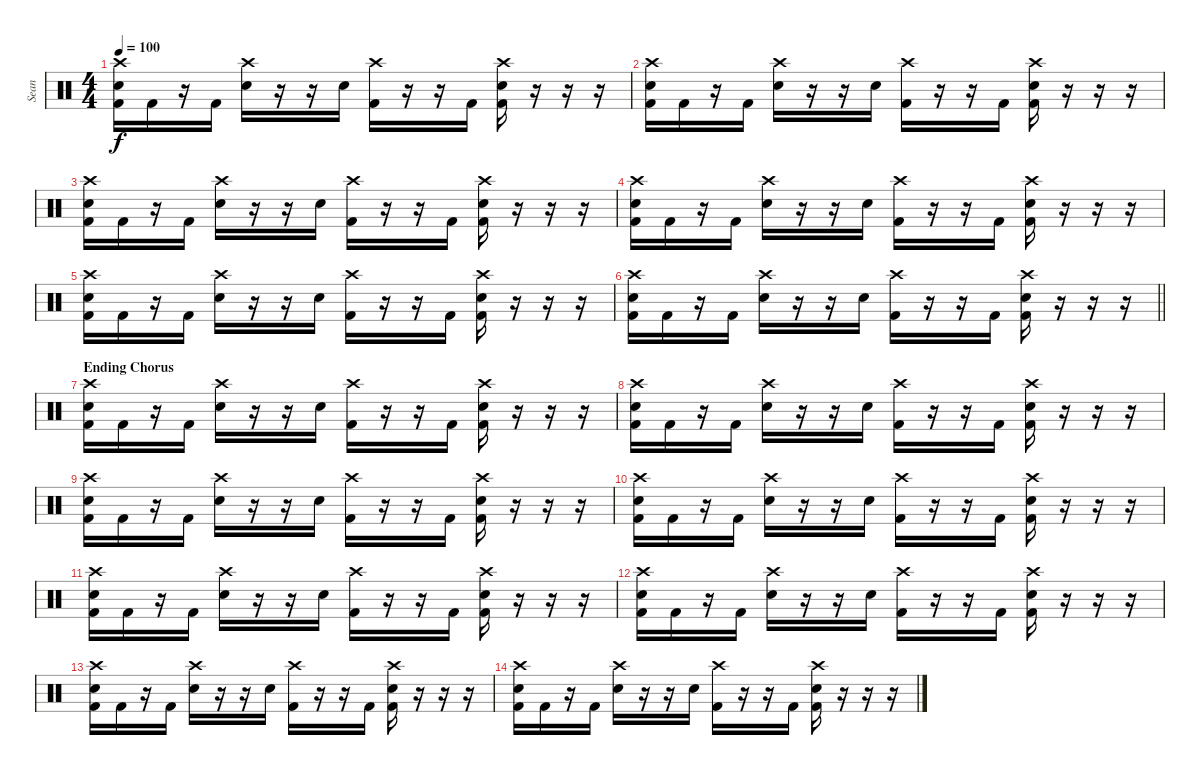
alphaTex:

\track ("Sean" "Sean") {instrument percussion}
\staff {score}
\articulation defaults
\ts (4 4)
\tempo 100
\clef neutral
\ks c
("Crash high (hit)" "Snare (hit) 2" "Kick (hit) 2").16{dy f} "Kick (hit) 2".16 r.16 "Kick (hit) 2".16 ("Crash high (hit)" "Snare (hit) 2").16 r.16 r.16 "Snare (hit) 2".16 ("Crash high (hit)" "Kick (hit) 2").16 r.16 r.16 "Kick (hit) 2".16 ("Crash high (hit)" "Snare (hit) 2" "Kick (hit) 2").16 r.16 r.16 r.16 |
("Crash high (hit)" "Snare (hit) 2" "Kick (hit) 2").16 "Kick (hit) 2".16 r.16 "Kick (hit) 2".16 ("Crash high (hit)" "Snare (hit) 2").16 r.16 r.16 "Snare (hit) 2".16 ("Crash high (hit)" "Kick (hit) 2").16 r.16 r.16 "Kick (hit) 2".16 ("Crash high (hit)" "Snare (hit) 2" "Kick (hit) 2").16 r.16 r.16 r.16 |
("Crash high (hit)" "Snare (hit) 2" "Kick (hit) 2").16 "Kick (hit) 2".16 r.16 "Kick (hit) 2".16 ("Crash high (hit)" "Snare (hit) 2").16 r.16 r.16 "Snare (hit) 2".16 ("Crash high (hit)" "Kick (hit) 2").16 r.16 r.16 "Kick (hit) 2".16 ("Crash high (hit)" "Snare (hit) 2" "Kick (hit) 2").16 r.16 r.16 r.16 |
("Crash high (hit)" "Snare (hit) 2" "Kick (hit) 2").16 "Kick (hit) 2".16 r.16 "Kick (hit) 2".16 ("Crash high (hit)" "Snare (hit) 2").16 r.16 r.16 "Snare (hit) 2".16 ("Crash high (hit)" "Kick (hit) 2").16 r.16 r.16 "Kick (hit) 2".16 ("Crash high (hit)" "Snare (hit) 2" "Kick (hit) 2").16 r.16 r.16 r.16 |
("Crash high (hit)" "Snare (hit) 2" "Kick (hit) 2").16 "Kick (hit) 2".16 r.16 "Kick (hit) 2".16 ("Crash high (hit)" "Snare (hit) 2").16 r.16 r.16 "Snare (hit) 2".16 ("Crash high (hit)" "Kick (hit) 2").16 r.16 r.16 "Kick (hit) 2".16 ("Crash high (hit)" "Snare (hit) 2" "Kick (hit) 2").16 r.16 r.16 r.16 |
\barLineRight lightlight
("Crash high (hit)" "Snare (hit) 2" "Kick (hit) 2").16 "Kick (hit) 2".16 r.16 "Kick (hit) 2".16 ("Crash high (hit)" "Snare (hit) 2").16 r.16 r.16 "Snare (hit) 2".16 ("Crash high (hit)" "Kick (hit) 2").16 r.16 r.16 "Kick (hit) 2".16 ("Crash high (hit)" "Snare (hit) 2" "Kick (hit) 2").16 r.16 r.16 r.16 |
\section ("" "Ending Chorus")
("Crash high (hit)" "Snare (hit) 2" "Kick (hit) 2").16 "Kick (hit) 2".16 r.16 "Kick (hit) 2".16 ("Crash high (hit)" "Snare (hit) 2").16 r.16 r.16 "Snare (hit) 2".16 ("Crash high (hit)" "Kick (hit) 2").16 r.16 r.16 "Kick (hit) 2".16 ("Crash high (hit)" "Snare (hit) 2" "Kick (hit) 2").16 r.16 r.16 r.16 |
("Crash high (hit)" "Snare (hit) 2" "Kick (hit) 2").16 "Kick (hit) 2".16 r.16 "Kick (hit) 2".16 ("Crash high (hit)" "Snare (hit) 2").16 r.16 r.16 "Snare (hit) 2".16 ("Crash high (hit)" "Kick (hit) 2").16 r.16 r.16 "Kick (hit) 2".16 ("Crash high (hit)" "Snare (hit) 2" "Kick (hit) 2").16 r.16 r.16 r.16 |
("Crash high (hit)" "Snare (hit) 2" "Kick (hit) 2").16 "Kick (hit) 2".16 r.16 "Kick (hit) 2".16 ("Crash high (hit)" "Snare (hit) 2").16 r.16 r.16 "Snare (hit) 2".16 ("Crash high (hit)" "Kick (hit) 2").16 r.16 r.16 "Kick (hit) 2".16 ("Crash high (hit)" "Snare (hit) 2" "Kick (hit) 2").16 r.16 r.16 r.16 |
("Crash high (hit)" "Snare (hit) 2" "Kick (hit) 2").16 "Kick (hit) 2".16 r.16 "Kick (hit) 2".16 ("Crash high (hit)" "Snare (hit) 2").16 r.16 r.16 "Snare (hit) 2".16 ("Crash high (hit)" "Kick (hit) 2").16 r.16 r.16 "Kick (hit) 2".16 ("Crash high (hit)" "Snare (hit) 2" "Kick (hit) 2").16 r.16 r.16 r.16 |
("Crash high (hit)" "Snare (hit) 2" "Kick (hit) 2").16 "Kick (hit) 2".16 r.16 "Kick (hit) 2".16 ("Crash high (hit)" "Snare (hit) 2").16 r.16 r.16 "Snare (hit) 2".16 ("Crash high (hit)" "Kick (hit) 2").16 r.16 r.16 "Kick (hit) 2".16 ("Crash high (hit)" "Snare (hit) 2" "Kick (hit) 2").16 r.16 r.16 r.16 |
("Crash high (hit)" "Snare (hit) 2" "Kick (hit) 2").16 "Kick (hit) 2".16 r.16 "Kick (hit) 2".16 ("Crash high (hit)" "Snare (hit) 2").16 r.16 r.16 "Snare (hit) 2".16 ("Crash high (hit)" "Kick (hit) 2").16 r.16 r.16 "Kick (hit) 2".16 ("Crash high (hit)" "Snare (hit) 2" "Kick (hit) 2").16 r.16 r.16 r.16 |
("Crash high (hit)" "Snare (hit) 2" "Kick (hit) 2").16 "Kick (hit) 2".16 r.16 "Kick (hit) 2".16 ("Crash high (hit)" "Snare (hit) 2").16 r.16 r.16 "Snare (hit) 2".16 ("Crash high (hit)" "Kick (hit) 2").16 r.16 r.16 "Kick (hit) 2".16 ("Crash high (hit)" "Snare (hit) 2" "Kick (hit) 2").16 r.16 r.16 r.16 |
("Crash high (hit)" "Snare (hit) 2" "Kick (hit) 2").16 "Kick (hit) 2".16 r.16 "Kick (hit) 2".16 ("Crash high (hit)" "Snare (hit) 2").16 r.16 r.16 "Snare (hit) 2".16 ("Crash high (hit)" "Kick (hit) 2").16 r.16 r.16 "Kick (hit) 2".16 ("Crash high (hit)" "Snare (hit) 2" "Kick (hit) 2").16 r.16 r.16 r.16
